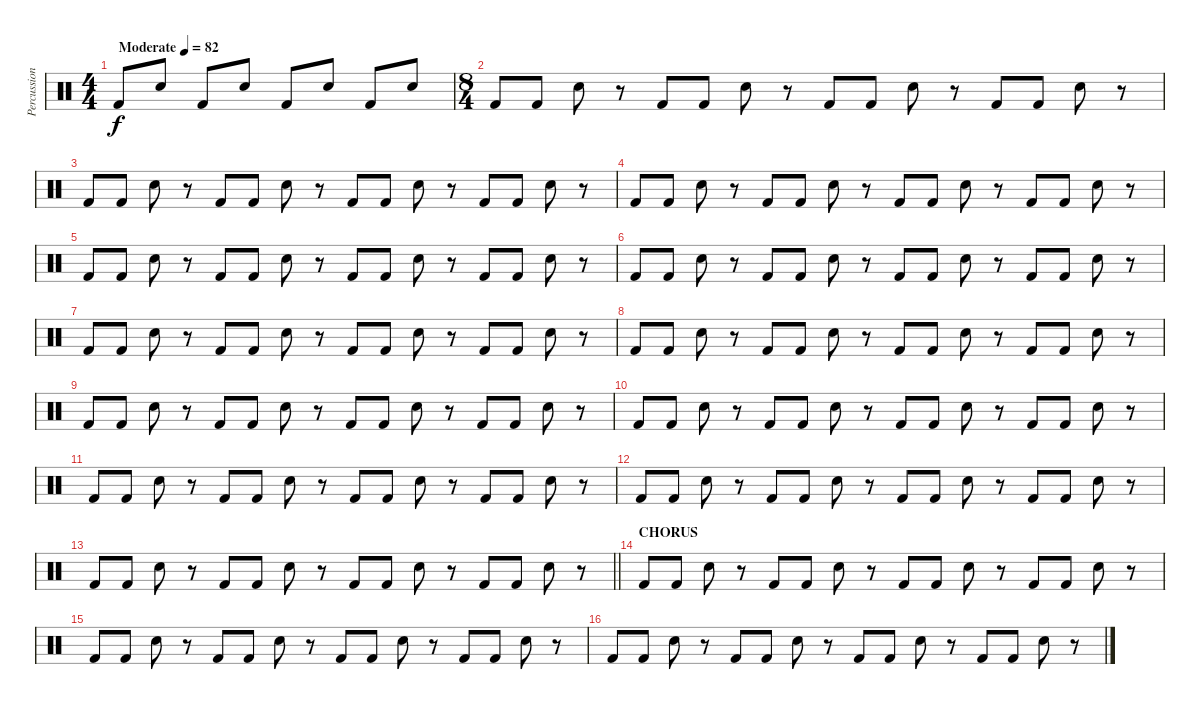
\track ("Percussion" "Percussion") {instrument percussion}
\staff {score}
\articulation defaults
\ts (4 4)
\tempo (82 "Moderate")
\clef neutral
\ks c "Kick (hit) 2".8{dy f} "Electric Snare (hit)".8 "Kick (hit) 2".8 "Electric Snare (hit)".8 "Kick (hit) 2".8 "Electric Snare (hit)".8 "Kick (hit) 2".8 "Electric Snare (hit)".8
|
\ts (8 4)
"Kick (hit) 2".8 "Kick (hit) 2".8 "Electric Snare (hit)".8 r.8 "Kick (hit) 2".8 "Kick (hit) 2".8 "Electric Snare (hit)".8 r.8 "Kick (hit) 2".8 "Kick (hit) 2".8 "Electric Snare (hit)".8 r.8 "Kick (hit) 2".8 "Kick (hit) 2".8 "Electric Snare (hit)".8 r.8 |
"Kick (hit) 2".8 "Kick (hit) 2".8 "Electric Snare (hit)".8 r.8 "Kick (hit) 2".8 "Kick (hit) 2".8 "Electric Snare (hit)".8 r.8 "Kick (hit) 2".8 "Kick (hit) 2".8 "Electric Snare (hit)".8 r.8 "Kick (hit) 2".8 "Kick (hit) 2".8 "Electric Snare (hit)".8 r.8 |
"Kick (hit) 2".8 "Kick (hit) 2".8 "Electric Snare (hit)".8 r.8 "Kick (hit) 2".8 "Kick (hit) 2".8 "Electric Snare (hit)".8 r.8 "Kick (hit) 2".8 "Kick (hit) 2".8 "Electric Snare (hit)".8 r.8 "Kick (hit) 2".8 "Kick (hit) 2".8 "Electric Snare (hit)".8 r.8 |
"Kick (hit) 2".8 "Kick (hit) 2".8 "Electric Snare (hit)".8 r.8 "Kick (hit) 2".8 "Kick (hit) 2".8 "Electric Snare (hit)".8 r.8 "Kick (hit) 2".8 "Kick (hit) 2".8 "Electric Snare (hit)".8 r.8 "Kick (hit) 2".8 "Kick (hit) 2".8 "Electric Snare (hit)".8 r.8 |
"Kick (hit) 2".8 "Kick (hit) 2".8 "Electric Snare (hit)".8 r.8 "Kick (hit) 2".8 "Kick (hit) 2".8 "Electric Snare (hit)".8 r.8 "Kick (hit) 2".8 "Kick (hit) 2".8 "Electric Snare (hit)".8 r.8 "Kick (hit) 2".8 "Kick (hit) 2".8 "Electric Snare (hit)".8 r.8 |
"Kick (hit) 2".8 "Kick (hit) 2".8 "Electric Snare (hit)".8 r.8 "Kick (hit) 2".8 "Kick (hit) 2".8 "Electric Snare (hit)".8 r.8 "Kick (hit) 2".8 "Kick (hit) 2".8 "Electric Snare (hit)".8 r.8 "Kick (hit) 2".8 "Kick (hit) 2".8 "Electric Snare (hit)".8 r.8 |
"Kick (hit) 2".8 "Kick (hit) 2".8 "Electric Snare (hit)".8 r.8 "Kick (hit) 2".8 "Kick (hit) 2".8 "Electric Snare (hit)".8 r.8 "Kick (hit) 2".8 "Kick (hit) 2".8 "Electric Snare (hit)".8 r.8 "Kick (hit) 2".8 "Kick (hit) 2".8 "Electric Snare (hit)".8 r.8 |
"Kick (hit) 2".8 "Kick (hit) 2".8 "Electric Snare (hit)".8 r.8 "Kick (hit) 2".8 "Kick (hit) 2".8 "Electric Snare (hit)".8 r.8 "Kick (hit) 2".8 "Kick (hit) 2".8 "Electric Snare (hit)".8 r.8 "Kick (hit) 2".8 "Kick (hit) 2".8 "Electric Snare (hit)".8 r.8 |
"Kick (hit) 2".8 "Kick (hit) 2".8 "Electric Snare (hit)".8 r.8 "Kick (hit) 2".8 "Kick (hit) 2".8 "Electric Snare (hit)".8 r.8 "Kick (hit) 2".8 "Kick (hit) 2".8 "Electric Snare (hit)".8 r.8 "Kick (hit) 2".8 "Kick (hit) 2".8 "Electric Snare (hit)".8 r.8 |
"Kick (hit) 2".8 "Kick (hit) 2".8 "Electric Snare (hit)".8 r.8 "Kick (hit) 2".8 "Kick (hit) 2".8 "Electric Snare (hit)".8 r.8 "Kick (hit) 2".8 "Kick (hit) 2".8 "Electric Snare (hit)".8 r.8 "Kick (hit) 2".8 "Kick (hit) 2".8 "Electric Snare (hit)".8 r.8 |
"Kick (hit) 2".8 "Kick (hit) 2".8 "Electric Snare (hit)".8 r.8 "Kick (hit) 2".8 "Kick (hit) 2".8 "Electric Snare (hit)".8 r.8 "Kick (hit) 2".8 "Kick (hit) 2".8 "Electric Snare (hit)".8 r.8 "Kick (hit) 2".8 "Kick (hit) 2".8 "Electric Snare (hit)".8 r.8 |
\barLineRight lightlight "Kick (hit) 2".8 "Kick (hit) 2".8 "Electric Snare (hit)".8
r.8 "Kick (hit) 2".8 "Kick (hit) 2".8 "Electric Snare (hit)".8 r.8 "Kick (hit) 2".8 "Kick (hit) 2".8 "Electric Snare (hit)".8 r.8 "Kick (hit) 2".8 "Kick (hit) 2".8 "Electric Snare (hit)".8 r.8 |
\section ("" "CHORUS")
"Kick (hit) 2".8 "Kick (hit) 2".8 "Electric Snare (hit)".8 r.8 "Kick (hit) 2".8 "Kick (hit) 2".8 "Electric Snare (hit)".8 r.8 "Kick (hit) 2".8 "Kick (hit) 2".8 "Electric Snare (hit)".8 r.8 "Kick (hit) 2".8 "Kick (hit) 2".8 "Electric Snare (hit)".8 r.8 |
"Kick (hit) 2".8 "Kick (hit) 2".8 "Electric Snare (hit)".8 r.8 "Kick (hit) 2".8 "Kick (hit) 2".8 "Electric Snare (hit)".8 r.8 "Kick (hit) 2".8 "Kick (hit) 2".8 "Electric Snare (hit)".8 r.8 "Kick (hit) 2".8 "Kick (hit) 2".8 "Electric Snare (hit)".8 r.8 |
"Kick (hit) 2".8 "Kick (hit) 2".8 "Electric Snare (hit)".8 r.8 "Kick (hit) 2".8 "Kick (hit) 2".8 "Electric Snare (hit)".8 r.8 "Kick (hit) 2".8 "Kick (hit) 2".8 "Electric Snare (hit)".8 r.8 "Kick (hit) 2".8 "Kick (hit) 2".8 "Electric Snare (hit)".8 r.8
